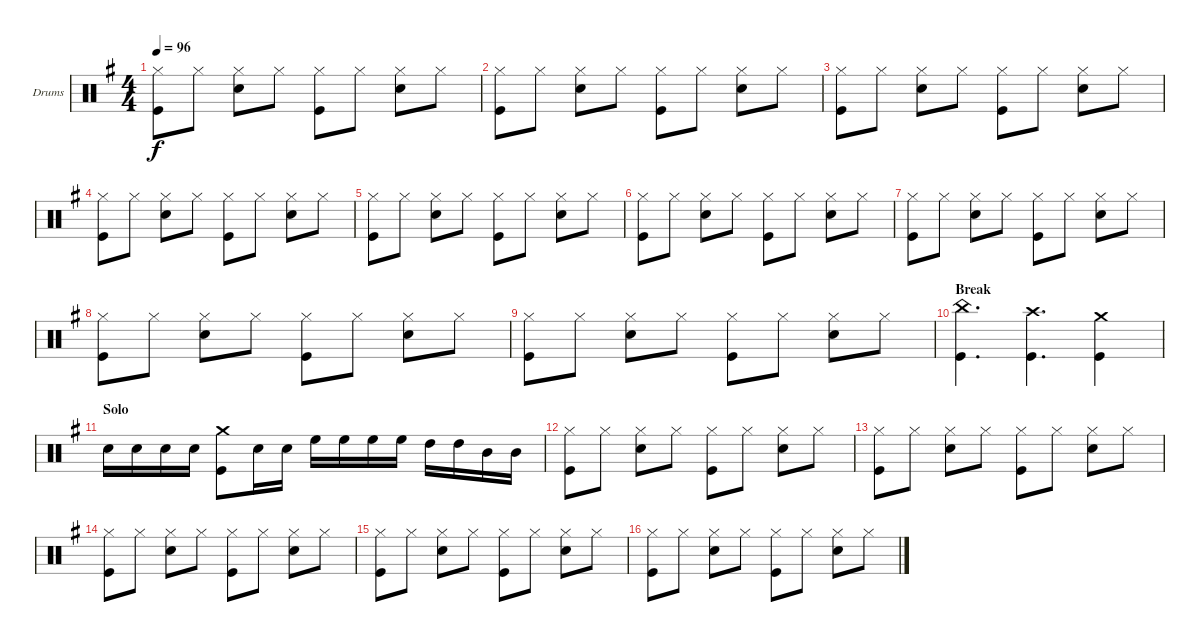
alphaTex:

\bracketExtendMode groupsimilarinstruments
\firstSystemTrackNameOrientation horizontal
\otherSystemsTrackNameOrientation horizontal
\track ("Drumkit" "Drums") {instrument percussion}
\staff {score}
\articulation defaults
\ts (4 4)
\tempo 96
\clef neutral
\ks eminor
("Hi-Hat (closed)" "Kick (hit)").8{dy f} "Hi-Hat (closed)".8 ("Hi-Hat (closed)" "Snare (hit) 2").8 "Hi-Hat (closed)".8 ("Hi-Hat (closed)" "Kick (hit)").8 "Hi-Hat (closed)".8 ("Hi-Hat (closed)" "Snare (hit) 2").8 "Hi-Hat (closed)".8 |
("Hi-Hat (closed)" "Kick (hit)").8 "Hi-Hat (closed)".8 ("Hi-Hat (closed)" "Snare (hit) 2").8 "Hi-Hat (closed)".8 ("Hi-Hat (closed)" "Kick (hit)").8 "Hi-Hat (closed)".8 ("Hi-Hat (closed)" "Snare (hit) 2").8 "Hi-Hat (closed)".8 |
("Hi-Hat (closed)" "Kick (hit)").8 "Hi-Hat (closed)".8 ("Hi-Hat (closed)" "Snare (hit) 2").8 "Hi-Hat (closed)".8 ("Hi-Hat (closed)" "Kick (hit)").8 "Hi-Hat (closed)".8 ("Hi-Hat (closed)" "Snare (hit) 2").8 "Hi-Hat (closed)".8 |
("Hi-Hat (closed)" "Kick (hit)").8 "Hi-Hat (closed)".8 ("Hi-Hat (closed)" "Snare (hit) 2").8 "Hi-Hat (closed)".8 ("Hi-Hat (closed)" "Kick (hit)").8 "Hi-Hat (closed)".8 ("Hi-Hat (closed)" "Snare (hit) 2").8 "Hi-Hat (closed)".8 |
("Hi-Hat (closed)" "Kick (hit)").8 "Hi-Hat (closed)".8 ("Hi-Hat (closed)" "Snare (hit) 2").8 "Hi-Hat (closed)".8 ("Hi-Hat (closed)" "Kick (hit)").8 "Hi-Hat (closed)".8 ("Hi-Hat (closed)" "Snare (hit) 2").8 "Hi-Hat (closed)".8 |
("Hi-Hat (closed)" "Kick (hit)").8 "Hi-Hat (closed)".8 ("Hi-Hat (closed)" "Snare (hit) 2").8 "Hi-Hat (closed)".8 ("Hi-Hat (closed)" "Kick (hit)").8 "Hi-Hat (closed)".8 ("Hi-Hat (closed)" "Snare (hit) 2").8 "Hi-Hat (closed)".8 |
("Hi-Hat (closed)" "Kick (hit)").8 "Hi-Hat (closed)".8 ("Hi-Hat (closed)" "Snare (hit) 2").8 "Hi-Hat (closed)".8 ("Hi-Hat (closed)" "Kick (hit)").8 "Hi-Hat (closed)".8 ("Hi-Hat (closed)" "Snare (hit) 2").8 "Hi-Hat (closed)".8 |
("Hi-Hat (closed)" "Kick (hit)").8 "Hi-Hat (closed)".8 ("Hi-Hat (closed)" "Snare (hit) 2").8 "Hi-Hat (closed)".8 ("Hi-Hat (closed)" "Kick (hit)").8 "Hi-Hat (closed)".8 ("Hi-Hat (closed)" "Snare (hit) 2").8 "Hi-Hat (closed)".8 |
("Hi-Hat (closed)" "Kick (hit)").8 "Hi-Hat (closed)".8 ("Hi-Hat (closed)" "Snare (hit) 2").8 "Hi-Hat (closed)".8 ("Hi-Hat (closed)" "Kick (hit)").8 "Hi-Hat (closed)".8 ("Hi-Hat (closed)" "Snare (hit) 2").8 "Hi-Hat (closed)".8 |
\section ("" "Break")
("China (hit)" "Kick (hit)").4{d} ("Crash high (hit)" "Kick (hit)").4{d} ("Crash medium (hit)" "Kick (hit)").4 |
\section ("" "Solo")
"Snare (hit) 2".16 "Snare (hit) 2".16 "Snare (hit) 2".16 "Snare (hit) 2".16 ("Crash medium (hit)" "Kick (hit)").8 "Snare (hit) 2".16 "Snare (hit) 2".16 "High Floor Tom (hit)".16 "High Floor Tom (hit)".16 "High Floor Tom (hit)".16 "High Floor Tom (hit)".16 "High Tom (hit)".16 "High Tom (hit)".16 "Mid Tom (hit)".16 "Mid Tom (hit)".16 |
("Hi-Hat (closed)" "Kick (hit)").8 "Hi-Hat (closed)".8 ("Hi-Hat (closed)" "Snare (hit) 2").8 "Hi-Hat (closed)".8 ("Hi-Hat (closed)" "Kick (hit)").8 "Hi-Hat (closed)".8 ("Hi-Hat (closed)" "Snare (hit) 2").8 "Hi-Hat (closed)".8 |
("Hi-Hat (closed)" "Kick (hit)").8 "Hi-Hat (closed)".8 ("Hi-Hat (closed)" "Snare (hit) 2").8 "Hi-Hat (closed)".8 ("Hi-Hat (closed)" "Kick (hit)").8 "Hi-Hat (closed)".8 ("Hi-Hat (closed)" "Snare (hit) 2").8 "Hi-Hat (closed)".8 |
("Hi-Hat (closed)" "Kick (hit)").8 "Hi-Hat (closed)".8 ("Hi-Hat (closed)" "Snare (hit) 2").8 "Hi-Hat (closed)".8 ("Hi-Hat (closed)" "Kick (hit)").8 "Hi-Hat (closed)".8 ("Hi-Hat (closed)" "Snare (hit) 2").8 "Hi-Hat (closed)".8 |
("Hi-Hat (closed)" "Kick (hit)").8 "Hi-Hat (closed)".8 ("Hi-Hat (closed)" "Snare (hit) 2").8 "Hi-Hat (closed)".8 ("Hi-Hat (closed)" "Kick (hit)").8 "Hi-Hat (closed)".8 ("Hi-Hat (closed)" "Snare (hit) 2").8 "Hi-Hat (closed)".8 |
("Hi-Hat (closed)" "Kick (hit)").8 "Hi-Hat (closed)".8 ("Hi-Hat (closed)" "Snare (hit) 2").8 "Hi-Hat (closed)".8 ("Hi-Hat (closed)" "Kick (hit)").8 "Hi-Hat (closed)".8 ("Hi-Hat (closed)" "Snare (hit) 2").8 "Hi-Hat (closed)".8
